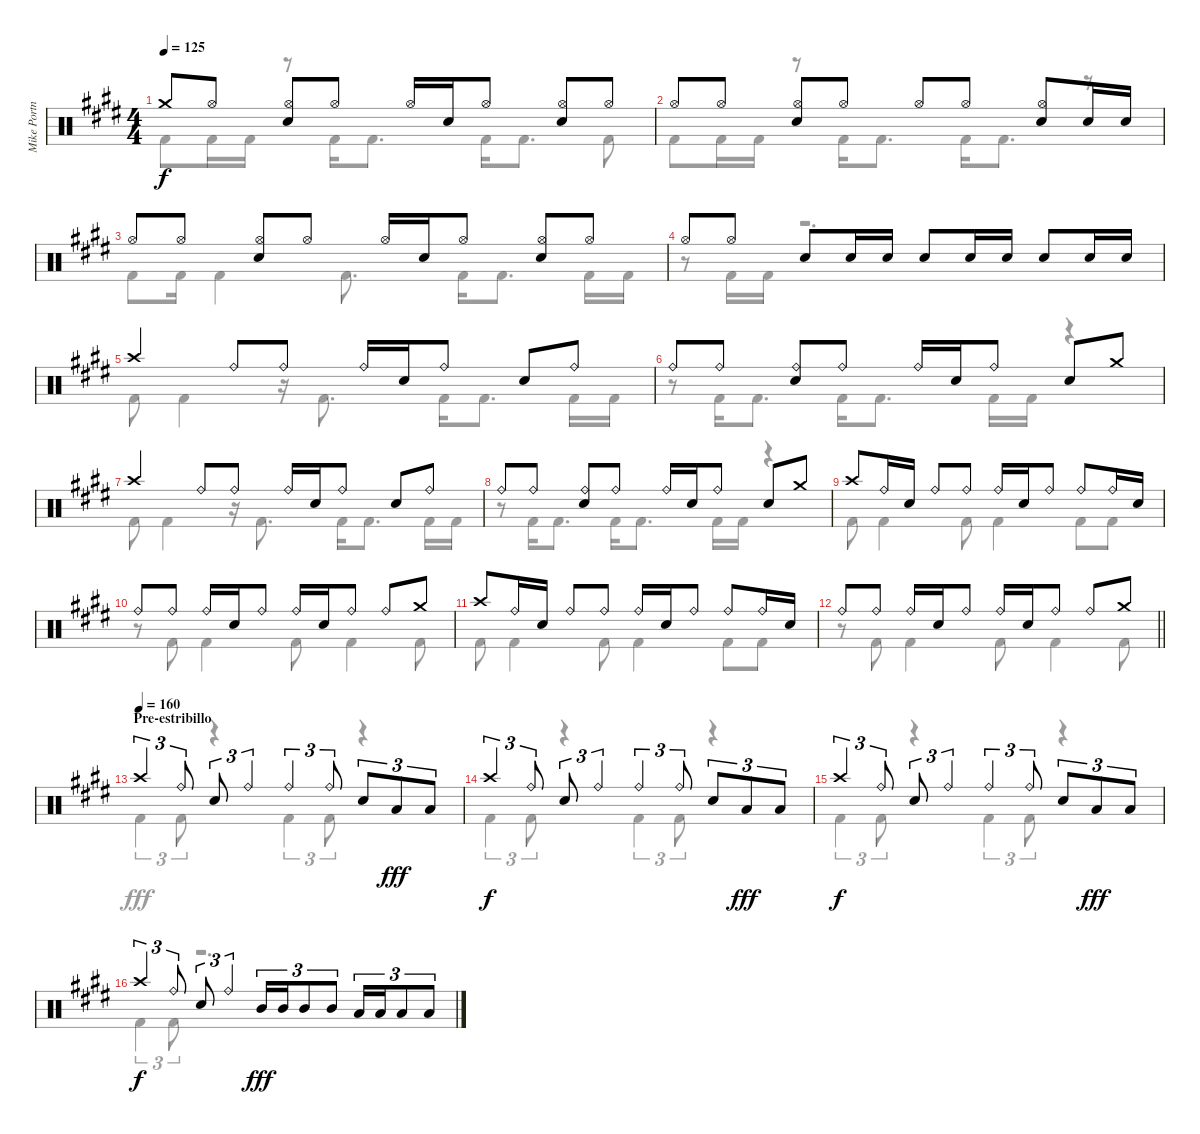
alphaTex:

\track ("Mike Portnoy" "Mike Portn") {instrument percussion}
\staff {score}
\articulation defaults
\voice
\ts (4 4)
\tempo 125
\clef neutral
\ks e "Crash medium (hit)".8{dy f} "Hi-Hat (open)".8
("Hi-Hat (open)" "Snare (hit) 2").8 "Hi-Hat (open)".8 "Hi-Hat (open)".16 "Snare (hit) 2".16 "Hi-Hat (open)".8 ("Hi-Hat (open)" "Snare (hit) 2").8 "Hi-Hat (open)".8 |
"Hi-Hat (open)".8 "Hi-Hat (open)".8 ("Hi-Hat (open)" "Snare (hit) 2").8 "Hi-Hat (open)".8 "Hi-Hat (open)".8 "Hi-Hat (open)".8 ("Hi-Hat (open)" "Snare (hit) 2").8 "Snare (hit) 2".16 "Snare (hit) 2".16 |
"Hi-Hat (open)".8 "Hi-Hat (open)".8 ("Hi-Hat (open)" "Snare (hit) 2").8 "Hi-Hat (open)".8 "Hi-Hat (open)".16 "Snare (hit) 2".16 "Hi-Hat (open)".8 ("Hi-Hat (open)" "Snare (hit) 2").8 "Hi-Hat (open)".8 |
"Hi-Hat (open)".8 "Hi-Hat (open)".8 "Snare (hit) 2".8 "Snare (hit) 2".16 "Snare (hit) 2".16 "Snare (hit) 2".8 "Snare (hit) 2".16 "Snare (hit) 2".16 "Snare (hit) 2".8 "Snare (hit) 2".16 "Snare (hit) 2".16 |
"Crash high (hit)".4 "Ride (bell)".8 "Ride (bell)".8 "Ride (bell)".16 "Snare (hit) 2".16 "Ride (bell)".8 "Snare (hit) 2".8 "Ride (bell)".8 |
"Ride (bell)".8 "Ride (bell)".8 ("Ride (bell)" "Snare (hit) 2").8 "Ride (bell)".8 "Ride (bell)".16 "Snare (hit) 2".16 "Ride (bell)".8 "Snare (hit) 2".8 "Crash medium (hit)".8 |
"Crash high (hit)".4 "Ride (bell)".8 "Ride (bell)".8 "Ride (bell)".16 "Snare (hit) 2".16 "Ride (bell)".8 "Snare (hit) 2".8 "Ride (bell)".8 |
"Ride (bell)".8 "Ride (bell)".8 ("Ride (bell)" "Snare (hit) 2").8 "Ride (bell)".8 "Ride (bell)".16 "Snare (hit) 2".16 "Ride (bell)".8 "Snare (hit) 2".8 "Crash medium (hit)".8 |
"Crash high (hit)".8 "Ride (bell)".16 "Snare (hit) 2".16 "Ride (bell)".8 "Ride (bell)".8 "Ride (bell)".16 "Snare (hit) 2".16 "Ride (bell)".8 "Ride (bell)".8 "Ride (bell)".16 "Snare (hit) 2".16 |
"Ride (bell)".8 "Ride (bell)".8 "Ride (bell)".16 "Snare (hit) 2".16 "Ride (bell)".8 "Ride (bell)".16 "Snare (hit) 2".16 "Ride (bell)".8 "Ride (bell)".8 "Crash medium (hit)".8 |
"Crash high (hit)".8 "Ride (bell)".16 "Snare (hit) 2".16 "Ride (bell)".8 "Ride (bell)".8 "Ride (bell)".16 "Snare (hit) 2".16 "Ride (bell)".8 "Ride (bell)".8 "Ride (bell)".16 "Snare (hit) 2".16 |
\barLineRight lightlight "Ride (bell)".8 "Ride (bell)".8 "Ride (bell)".16 "Snare (hit) 2".16 "Ride (bell)".8 "Ride (bell)".16 "Snare (hit) 2".16 "Ride (bell)".8 "Ride (bell)".8 "Crash medium (hit)".8
|
\section ("" "Pre-estribillo")
\tempo (160)
"Crash high (hit)".4{tu (3 2)} "Ride (bell)".8{tu (3 2)} "Snare (hit) 2".8{tu (3 2)} "Ride (bell)".4{tu (3 2)} "Ride (bell)".4{tu (3 2)} "Ride (bell)".8{tu (3 2)} "Snare (hit) 2".8{tu (3 2)} "Low Tom (hit)".8{tu (3 2) dy fff volume 16} "Low Tom (hit)".8{tu (3 2)} |
"Crash high (hit)".4{tu (3 2) dy f volume 13} "Ride (bell)".8{tu (3 2)} "Snare (hit) 2".8{tu (3 2)} "Ride (bell)".4{tu (3 2)} "Ride (bell)".4{tu (3 2)} "Ride (bell)".8{tu (3 2)} "Snare (hit) 2".8{tu (3 2)} "Low Tom (hit)".8{tu (3 2) dy fff volume 16} "Low Tom (hit)".8{tu (3 2)} |
"Crash high (hit)".4{tu (3 2) dy f volume 13} "Ride (bell)".8{tu (3 2)} "Snare (hit) 2".8{tu (3 2)} "Ride (bell)".4{tu (3 2)} "Ride (bell)".4{tu (3 2)} "Ride (bell)".8{tu (3 2)} "Snare (hit) 2".8{tu (3 2)} "Low Tom (hit)".8{tu (3 2) dy fff volume 16} "Low Tom (hit)".8{tu (3 2)} |
"Crash high (hit)".4{tu (3 2) dy f volume 13} "Ride (bell)".8{tu (3 2)} "Snare (hit) 2".8{tu (3 2)} "Ride (bell)".4{tu (3 2)} "Mid Tom (hit)".16{tu (3 2) dy fff volume 16} "Mid Tom (hit)".16{tu (3 2)} "Mid Tom (hit)".8{tu (3 2)} "Mid Tom (hit)".8{tu (3 2)} "Low Tom (hit)".16{tu (3 2)} "Low Tom (hit)".16{tu (3 2)} "Low Tom (hit)".8{tu (3 2)} "Low Tom (hit)".8{tu (3 2)}
\voice
\clef neutral
\ottava regular
\simile none
\ks e "Kick (hit) 2".8{dy f} "Kick (hit) 2".16 "Kick (hit) 2".16
r.8 "Kick (hit) 2".16 "Kick (hit) 2".8{d} "Kick (hit) 2".16 "Kick (hit) 2".8{d} "Kick (hit) 2".8 |
"Kick (hit) 2".8 "Kick (hit) 2".16 "Kick (hit) 2".16 r.8 "Kick (hit) 2".16 "Kick (hit) 2".8{d} "Kick (hit) 2".16 "Kick (hit) 2".8{d} r.8 |
"Kick (hit) 2".8 "Kick (hit) 2".16 "Kick (hit) 2".4 "Kick (hit) 2".8{d} "Kick (hit) 2".16 "Kick (hit) 2".8{d} "Kick (hit) 2".16 "Kick (hit) 2".16 |
r.8 "Kick (hit) 2".16 "Kick (hit) 2".16 r.2{d} |
"Kick (hit) 2".8 "Kick (hit) 2".4 r.16 "Kick (hit) 2".8{d} "Kick (hit) 2".16 "Kick (hit) 2".8{d} "Kick (hit) 2".16 "Kick (hit) 2".16 |
r.8 "Kick (hit) 2".16 "Kick (hit) 2".8{d} "Kick (hit) 2".16 "Kick (hit) 2".8{d} "Kick (hit) 2".16 "Kick (hit) 2".16 r.4 |
"Kick (hit) 2".8 "Kick (hit) 2".4 r.16 "Kick (hit) 2".8{d} "Kick (hit) 2".16 "Kick (hit) 2".8{d} "Kick (hit) 2".16 "Kick (hit) 2".16 |
r.8 "Kick (hit) 2".16 "Kick (hit) 2".8{d} "Kick (hit) 2".16 "Kick (hit) 2".8{d} "Kick (hit) 2".16 "Kick (hit) 2".16 r.4 |
"Kick (hit) 2".8 "Kick (hit) 2".4 "Kick (hit) 2".8 "Kick (hit) 2".4 "Kick (hit) 2".8 "Kick (hit) 2".8 |
r.8 "Kick (hit) 2".8 "Kick (hit) 2".4 "Kick (hit) 2".8 "Kick (hit) 2".4 "Kick (hit) 2".8 |
"Kick (hit) 2".8 "Kick (hit) 2".4 "Kick (hit) 2".8 "Kick (hit) 2".4 "Kick (hit) 2".8 "Kick (hit) 2".8 |
\barLineRight lightlight
r.8 "Kick (hit) 2".8 "Kick (hit) 2".4 "Kick (hit) 2".8 "Kick (hit) 2".4 "Kick (hit) 2".8 |
"Kick (hit) 2".4{tu (3 2) dy fff} "Kick (hit) 2".8{tu (3 2)} r.4 "Kick (hit) 2".4{tu (3 2)} "Kick (hit) 2".8{tu (3 2)} r.4 |
"Kick (hit) 2".4{tu (3 2)} "Kick (hit) 2".8{tu (3 2)} r.4 "Kick (hit) 2".4{tu (3 2)} "Kick (hit) 2".8{tu (3 2)} r.4 |
"Kick (hit) 2".4{tu (3 2)} "Kick (hit) 2".8{tu (3 2)} r.4 "Kick (hit) 2".4{tu (3 2)} "Kick (hit) 2".8{tu (3 2)} r.4 |
"Kick (hit) 2".4{tu (3 2)} "Kick (hit) 2".8{tu (3 2)} r.2{d}
